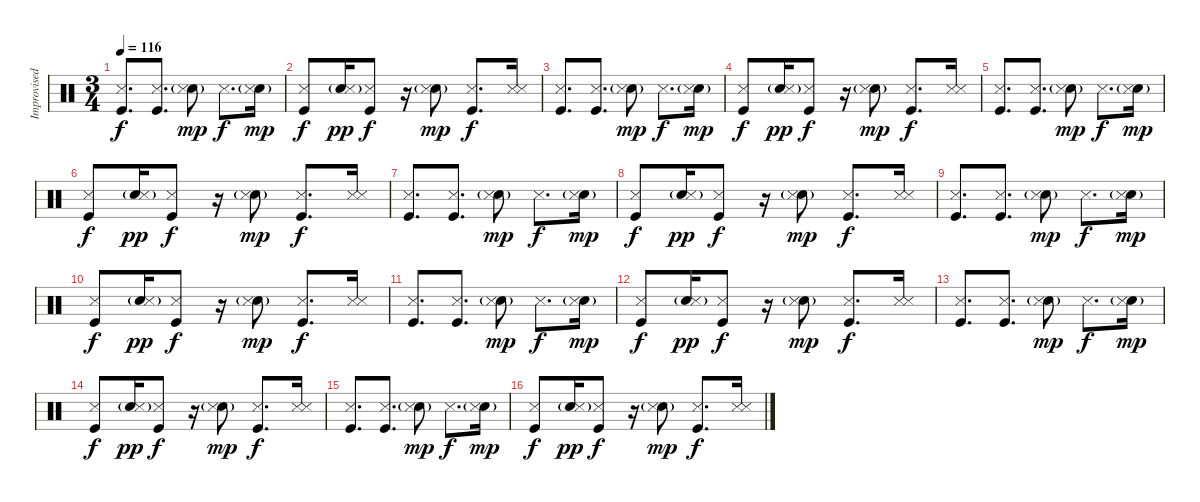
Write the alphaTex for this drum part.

\track ("Improvised Drums" "Improvised") {instrument percussion}
\staff {score}
\articulation defaults
\ts (3 4)
\tempo 116
\clef neutral
\ks c
("Metronome (hit)" "Kick (hit)").8{d dy f} ("Metronome (hit)" "Kick (hit)").8{d} ("Electric Snare (hit)"{g} "Metronome (hit)").8{dy mp} "Metronome (hit)".8{d dy f} ("Electric Snare (hit)"{g} "Metronome (hit)").16{dy mp} |
("Metronome (hit)" "Kick (hit)").8{dy f} ("Electric Snare (hit)"{g} "Metronome (hit)").16{dy pp} ("Kick (hit)" "Metronome (hit)").8{dy f} r.16 ("Electric Snare (hit)"{g} "Metronome (hit)").8{dy mp} ("Kick (hit)" "Metronome (hit)").8{d dy f} ("Metronome (hit)" "Metronome (hit)").16 |
("Metronome (hit)" "Kick (hit)").8{d} ("Metronome (hit)" "Kick (hit)").8{d} ("Electric Snare (hit)"{g} "Metronome (hit)").8{dy mp} "Metronome (hit)".8{d dy f} ("Electric Snare (hit)"{g} "Metronome (hit)").16{dy mp} |
("Metronome (hit)" "Kick (hit)").8{dy f} ("Electric Snare (hit)"{g} "Metronome (hit)").16{dy pp} ("Kick (hit)" "Metronome (hit)").8{dy f} r.16 ("Electric Snare (hit)"{g} "Metronome (hit)").8{dy mp} ("Kick (hit)" "Metronome (hit)").8{d dy f} ("Metronome (hit)" "Metronome (hit)").16 |
("Metronome (hit)" "Kick (hit)").8{d} ("Metronome (hit)" "Kick (hit)").8{d} ("Electric Snare (hit)"{g} "Metronome (hit)").8{dy mp} "Metronome (hit)".8{d dy f} ("Electric Snare (hit)"{g} "Metronome (hit)").16{dy mp} |
("Metronome (hit)" "Kick (hit)").8{dy f} ("Electric Snare (hit)"{g} "Metronome (hit)").16{dy pp} ("Kick (hit)" "Metronome (hit)").8{dy f} r.16 ("Electric Snare (hit)"{g} "Metronome (hit)").8{dy mp} ("Kick (hit)" "Metronome (hit)").8{d dy f} ("Metronome (hit)" "Metronome (hit)").16 |
("Metronome (hit)" "Kick (hit)").8{d} ("Metronome (hit)" "Kick (hit)").8{d} ("Electric Snare (hit)"{g} "Metronome (hit)").8{dy mp} "Metronome (hit)".8{d dy f} ("Electric Snare (hit)"{g} "Metronome (hit)").16{dy mp} |
("Metronome (hit)" "Kick (hit)").8{dy f} ("Electric Snare (hit)"{g} "Metronome (hit)").16{dy pp} ("Kick (hit)" "Metronome (hit)").8{dy f} r.16 ("Electric Snare (hit)"{g} "Metronome (hit)").8{dy mp} ("Kick (hit)" "Metronome (hit)").8{d dy f} ("Metronome (hit)" "Metronome (hit)").16 |
("Metronome (hit)" "Kick (hit)").8{d} ("Metronome (hit)" "Kick (hit)").8{d} ("Electric Snare (hit)"{g} "Metronome (hit)").8{dy mp} "Metronome (hit)".8{d dy f} ("Electric Snare (hit)"{g} "Metronome (hit)").16{dy mp} |
("Metronome (hit)" "Kick (hit)").8{dy f} ("Electric Snare (hit)"{g} "Metronome (hit)").16{dy pp} ("Kick (hit)" "Metronome (hit)").8{dy f} r.16 ("Electric Snare (hit)"{g} "Metronome (hit)").8{dy mp} ("Kick (hit)" "Metronome (hit)").8{d dy f} ("Metronome (hit)" "Metronome (hit)").16 |
("Metronome (hit)" "Kick (hit)").8{d} ("Metronome (hit)" "Kick (hit)").8{d} ("Electric Snare (hit)"{g} "Metronome (hit)").8{dy mp} "Metronome (hit)".8{d dy f} ("Electric Snare (hit)"{g} "Metronome (hit)").16{dy mp} |
("Metronome (hit)" "Kick (hit)").8{dy f} ("Electric Snare (hit)"{g} "Metronome (hit)").16{dy pp} ("Kick (hit)" "Metronome (hit)").8{dy f} r.16 ("Electric Snare (hit)"{g} "Metronome (hit)").8{dy mp} ("Kick (hit)" "Metronome (hit)").8{d dy f} ("Metronome (hit)" "Metronome (hit)").16 |
("Metronome (hit)" "Kick (hit)").8{d} ("Metronome (hit)" "Kick (hit)").8{d} ("Electric Snare (hit)"{g} "Metronome (hit)").8{dy mp} "Metronome (hit)".8{d dy f} ("Electric Snare (hit)"{g} "Metronome (hit)").16{dy mp} |
("Metronome (hit)" "Kick (hit)").8{dy f} ("Electric Snare (hit)"{g} "Metronome (hit)").16{dy pp} ("Kick (hit)" "Metronome (hit)").8{dy f} r.16 ("Electric Snare (hit)"{g} "Metronome (hit)").8{dy mp} ("Kick (hit)" "Metronome (hit)").8{d dy f} ("Metronome (hit)" "Metronome (hit)").16 |
("Metronome (hit)" "Kick (hit)").8{d} ("Metronome (hit)" "Kick (hit)").8{d} ("Electric Snare (hit)"{g} "Metronome (hit)").8{dy mp} "Metronome (hit)".8{d dy f} ("Electric Snare (hit)"{g} "Metronome (hit)").16{dy mp} |
("Metronome (hit)" "Kick (hit)").8{dy f} ("Electric Snare (hit)"{g} "Metronome (hit)").16{dy pp} ("Kick (hit)" "Metronome (hit)").8{dy f} r.16 ("Electric Snare (hit)"{g} "Metronome (hit)").8{dy mp} ("Kick (hit)" "Metronome (hit)").8{d dy f} ("Metronome (hit)" "Metronome (hit)").16
